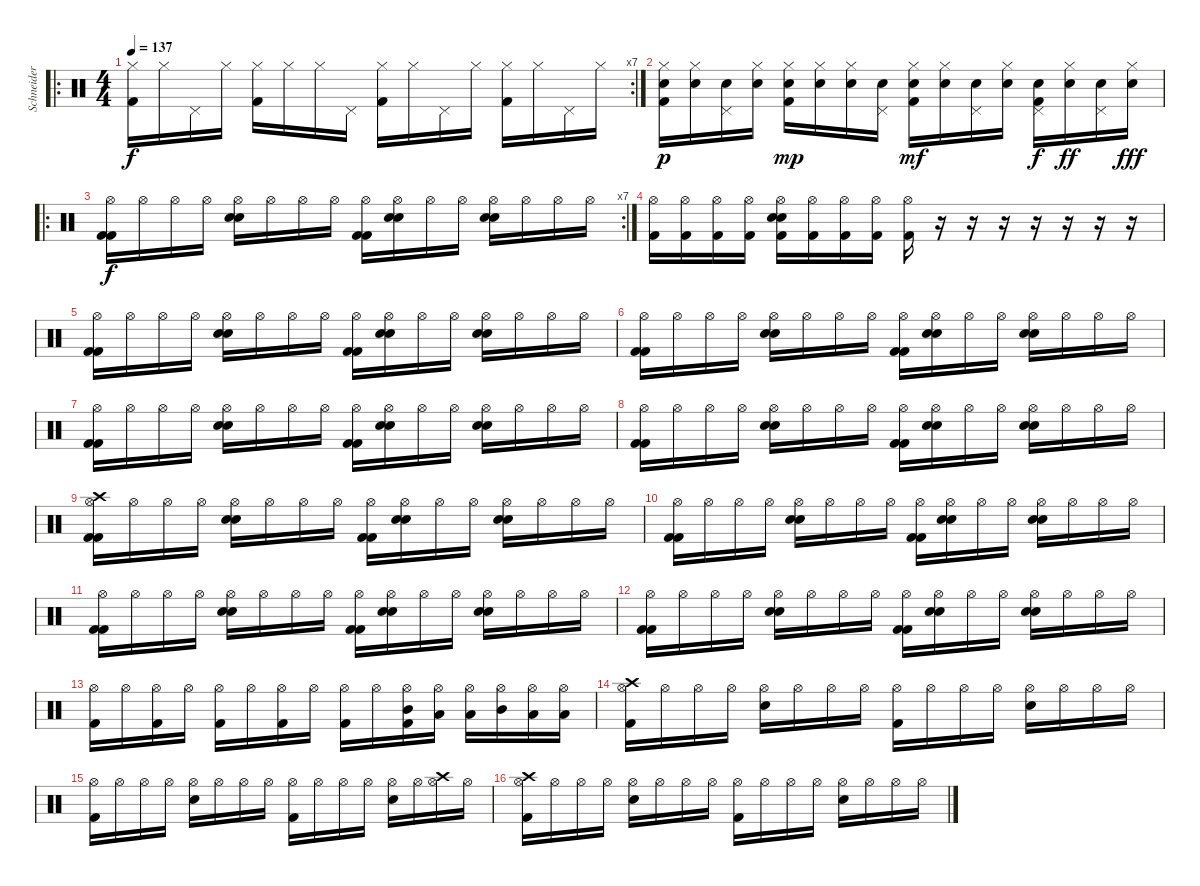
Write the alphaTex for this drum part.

\track ("Schneider" "Schneider") {instrument percussion}
\staff {score}
\articulation defaults
\ro
\rc 7
\ts (4 4)
\tempo 137
\clef neutral
\ks c
("Hi-Hat (closed)" "Kick (hit) 2").16{dy f} "Hi-Hat (closed)".16 "Pedal Hi-Hat (hit)".16 "Hi-Hat (closed)".16 ("Hi-Hat (closed)" "Kick (hit) 2").16 "Hi-Hat (closed)".16 "Hi-Hat (closed)".16 "Pedal Hi-Hat (hit)".16 ("Hi-Hat (closed)" "Kick (hit) 2").16 "Hi-Hat (closed)".16 "Pedal Hi-Hat (hit)".16 "Hi-Hat (closed)".16 ("Hi-Hat (closed)" "Kick (hit) 2").16 "Hi-Hat (closed)".16 "Pedal Hi-Hat (hit)".16 "Hi-Hat (closed)".16 |
("Electric Snare (hit)" "Hi-Hat (closed)" "Kick (hit) 2").16{dy p} ("Electric Snare (hit)" "Hi-Hat (closed)").16 ("Electric Snare (hit)" "Pedal Hi-Hat (hit)").16 ("Electric Snare (hit)" "Hi-Hat (closed)").16 ("Electric Snare (hit)" "Hi-Hat (closed)" "Kick (hit) 2").16{dy mp} ("Electric Snare (hit)" "Hi-Hat (closed)").16 ("Electric Snare (hit)" "Hi-Hat (closed)").16 ("Electric Snare (hit)" "Pedal Hi-Hat (hit)").16 ("Electric Snare (hit)" "Hi-Hat (closed)" "Kick (hit) 2").16{dy mf} ("Electric Snare (hit)" "Hi-Hat (closed)").16 ("Electric Snare (hit)" "Pedal Hi-Hat (hit)").16 ("Electric Snare (hit)" "Hi-Hat (closed)").16 ("Electric Snare (hit)" "Pedal Hi-Hat (hit)" "Kick (hit) 2").16{dy f} ("Electric Snare (hit)" "Hi-Hat (closed)").16{dy ff} ("Electric Snare (hit)" "Pedal Hi-Hat (hit)").16 ("Electric Snare (hit)" "Hi-Hat (closed)").16{dy fff} |
\ro
\rc 7
("Hi-Hat (open)" "Kick (hit) 2" "Kick (hit) 2").16{dy f} "Hi-Hat (open)".16 "Hi-Hat (open)".16 "Hi-Hat (open)".16 ("Hi-Hat (open)" "Electric Snare (hit)" "Electric Snare (hit)").16 "Hi-Hat (open)".16 "Hi-Hat (open)".16 "Hi-Hat (open)".16 ("Hi-Hat (open)" "Kick (hit) 2" "Kick (hit) 2").16 ("Hi-Hat (open)" "Electric Snare (hit)" "Electric Snare (hit)").16 "Hi-Hat (open)".16 "Hi-Hat (open)".16 ("Hi-Hat (open)" "Electric Snare (hit)" "Electric Snare (hit)").16 "Hi-Hat (open)".16 "Hi-Hat (open)".16 "Hi-Hat (open)".16 |
("Hi-Hat (open)" "Kick (hit) 2").16 ("Hi-Hat (open)" "Kick (hit) 2").16 ("Hi-Hat (open)" "Kick (hit) 2").16 ("Hi-Hat (open)" "Kick (hit) 2").16 ("Hi-Hat (open)" "Electric Snare (hit)" "Electric Snare (hit)" "Kick (hit) 2").16 ("Hi-Hat (open)" "Kick (hit) 2").16 ("Hi-Hat (open)" "Kick (hit) 2").16 ("Hi-Hat (open)" "Kick (hit) 2").16 ("Hi-Hat (open)" "Kick (hit) 2").16 r.16 r.16 r.16 r.16 r.16 r.16 r.16 |
("Hi-Hat (open)" "Kick (hit) 2" "Kick (hit) 2").16 "Hi-Hat (open)".16 "Hi-Hat (open)".16 "Hi-Hat (open)".16 ("Hi-Hat (open)" "Electric Snare (hit)" "Electric Snare (hit)").16 "Hi-Hat (open)".16 "Hi-Hat (open)".16 "Hi-Hat (open)".16 ("Hi-Hat (open)" "Kick (hit) 2" "Kick (hit) 2").16 ("Hi-Hat (open)" "Electric Snare (hit)" "Electric Snare (hit)").16 "Hi-Hat (open)".16 "Hi-Hat (open)".16 ("Hi-Hat (open)" "Electric Snare (hit)" "Electric Snare (hit)").16 "Hi-Hat (open)".16 "Hi-Hat (open)".16 "Hi-Hat (open)".16 |
("Hi-Hat (open)" "Kick (hit) 2" "Kick (hit) 2").16 "Hi-Hat (open)".16 "Hi-Hat (open)".16 "Hi-Hat (open)".16 ("Hi-Hat (open)" "Electric Snare (hit)" "Electric Snare (hit)").16 "Hi-Hat (open)".16 "Hi-Hat (open)".16 "Hi-Hat (open)".16 ("Hi-Hat (open)" "Kick (hit) 2" "Kick (hit) 2").16 ("Hi-Hat (open)" "Electric Snare (hit)" "Electric Snare (hit)").16 "Hi-Hat (open)".16 "Hi-Hat (open)".16 ("Hi-Hat (open)" "Electric Snare (hit)" "Electric Snare (hit)").16 "Hi-Hat (open)".16 "Hi-Hat (open)".16 "Hi-Hat (open)".16 |
("Hi-Hat (open)" "Kick (hit) 2" "Kick (hit) 2").16 "Hi-Hat (open)".16 "Hi-Hat (open)".16 "Hi-Hat (open)".16 ("Hi-Hat (open)" "Electric Snare (hit)" "Electric Snare (hit)").16 "Hi-Hat (open)".16 "Hi-Hat (open)".16 "Hi-Hat (open)".16 ("Hi-Hat (open)" "Kick (hit) 2" "Kick (hit) 2").16 ("Hi-Hat (open)" "Electric Snare (hit)" "Electric Snare (hit)").16 "Hi-Hat (open)".16 "Hi-Hat (open)".16 ("Hi-Hat (open)" "Electric Snare (hit)" "Electric Snare (hit)").16 "Hi-Hat (open)".16 "Hi-Hat (open)".16 "Hi-Hat (open)".16 |
("Hi-Hat (open)" "Kick (hit) 2" "Kick (hit) 2").16 "Hi-Hat (open)".16 "Hi-Hat (open)".16 "Hi-Hat (open)".16 ("Hi-Hat (open)" "Electric Snare (hit)" "Electric Snare (hit)").16 "Hi-Hat (open)".16 "Hi-Hat (open)".16 "Hi-Hat (open)".16 ("Hi-Hat (open)" "Kick (hit) 2" "Kick (hit) 2").16 ("Hi-Hat (open)" "Electric Snare (hit)" "Electric Snare (hit)").16 "Hi-Hat (open)".16 "Hi-Hat (open)".16 ("Hi-Hat (open)" "Electric Snare (hit)" "Electric Snare (hit)").16 "Hi-Hat (open)".16 "Hi-Hat (open)".16 "Hi-Hat (open)".16 |
("Crash high (hit)" "Hi-Hat (open)" "Kick (hit) 2" "Kick (hit) 2").16 "Hi-Hat (open)".16 "Hi-Hat (open)".16 "Hi-Hat (open)".16 ("Hi-Hat (open)" "Electric Snare (hit)" "Electric Snare (hit)").16 "Hi-Hat (open)".16 "Hi-Hat (open)".16 "Hi-Hat (open)".16 ("Hi-Hat (open)" "Kick (hit) 2" "Kick (hit) 2").16 ("Hi-Hat (open)" "Electric Snare (hit)" "Electric Snare (hit)").16 "Hi-Hat (open)".16 "Hi-Hat (open)".16 ("Hi-Hat (open)" "Electric Snare (hit)" "Electric Snare (hit)").16 "Hi-Hat (open)".16 "Hi-Hat (open)".16 "Hi-Hat (open)".16 |
("Hi-Hat (open)" "Kick (hit) 2" "Kick (hit) 2").16 "Hi-Hat (open)".16 "Hi-Hat (open)".16 "Hi-Hat (open)".16 ("Hi-Hat (open)" "Electric Snare (hit)" "Electric Snare (hit)").16 "Hi-Hat (open)".16 "Hi-Hat (open)".16 "Hi-Hat (open)".16 ("Hi-Hat (open)" "Kick (hit) 2" "Kick (hit) 2").16 ("Hi-Hat (open)" "Electric Snare (hit)" "Electric Snare (hit)").16 "Hi-Hat (open)".16 "Hi-Hat (open)".16 ("Hi-Hat (open)" "Electric Snare (hit)" "Electric Snare (hit)").16 "Hi-Hat (open)".16 "Hi-Hat (open)".16 "Hi-Hat (open)".16 |
("Hi-Hat (open)" "Kick (hit) 2" "Kick (hit) 2").16 "Hi-Hat (open)".16 "Hi-Hat (open)".16 "Hi-Hat (open)".16 ("Hi-Hat (open)" "Electric Snare (hit)" "Electric Snare (hit)").16 "Hi-Hat (open)".16 "Hi-Hat (open)".16 "Hi-Hat (open)".16 ("Hi-Hat (open)" "Kick (hit) 2" "Kick (hit) 2").16 ("Hi-Hat (open)" "Electric Snare (hit)" "Electric Snare (hit)").16 "Hi-Hat (open)".16 "Hi-Hat (open)".16 ("Hi-Hat (open)" "Electric Snare (hit)" "Electric Snare (hit)").16 "Hi-Hat (open)".16 "Hi-Hat (open)".16 "Hi-Hat (open)".16 |
("Hi-Hat (open)" "Kick (hit) 2" "Kick (hit) 2").16 "Hi-Hat (open)".16 "Hi-Hat (open)".16 "Hi-Hat (open)".16 ("Hi-Hat (open)" "Electric Snare (hit)" "Electric Snare (hit)").16 "Hi-Hat (open)".16 "Hi-Hat (open)".16 "Hi-Hat (open)".16 ("Hi-Hat (open)" "Kick (hit) 2" "Kick (hit) 2").16 ("Hi-Hat (open)" "Electric Snare (hit)" "Electric Snare (hit)").16 "Hi-Hat (open)".16 "Hi-Hat (open)".16 ("Hi-Hat (open)" "Electric Snare (hit)" "Electric Snare (hit)").16 "Hi-Hat (open)".16 "Hi-Hat (open)".16 "Hi-Hat (open)".16 |
("Hi-Hat (open)" "Kick (hit) 2").16 "Hi-Hat (open)".16 ("Hi-Hat (open)" "Kick (hit) 2").16 "Hi-Hat (open)".16 ("Hi-Hat (open)" "Kick (hit) 2").16 "Hi-Hat (open)".16 ("Hi-Hat (open)" "Kick (hit) 2").16 "Hi-Hat (open)".16 ("Hi-Hat (open)" "Kick (hit) 2").16 "Hi-Hat (open)".16 ("Hi-Hat (open)" "Mid Tom (hit)" "Kick (hit) 2").16 ("Hi-Hat (open)" "Low Tom (hit)").16 ("Hi-Hat (open)" "Low Floor Tom (hit)").16 ("Hi-Hat (open)" "Mid Tom (hit)").16 ("Hi-Hat (open)" "Low Tom (hit)").16 ("Hi-Hat (open)" "Low Floor Tom (hit)").16 |
("Crash high (hit)" "Hi-Hat (open)" "Kick (hit) 2").16 "Hi-Hat (open)".16 "Hi-Hat (open)".16 "Hi-Hat (open)".16 ("Hi-Hat (open)" "Electric Snare (hit)").16 "Hi-Hat (open)".16 "Hi-Hat (open)".16 "Hi-Hat (open)".16 ("Hi-Hat (open)" "Kick (hit) 2").16 "Hi-Hat (open)".16 "Hi-Hat (open)".16 "Hi-Hat (open)".16 ("Hi-Hat (open)" "Electric Snare (hit)").16 "Hi-Hat (open)".16 "Hi-Hat (open)".16 "Hi-Hat (open)".16 |
("Hi-Hat (open)" "Kick (hit) 2").16 "Hi-Hat (open)".16 "Hi-Hat (open)".16 "Hi-Hat (open)".16 ("Hi-Hat (open)" "Electric Snare (hit)").16 "Hi-Hat (open)".16 "Hi-Hat (open)".16 "Hi-Hat (open)".16 ("Hi-Hat (open)" "Kick (hit) 2").16 "Hi-Hat (open)".16 "Hi-Hat (open)".16 "Hi-Hat (open)".16 ("Hi-Hat (open)" "Electric Snare (hit)").16 "Hi-Hat (open)".16 ("Crash high (hit)" "Hi-Hat (open)").16 "Hi-Hat (open)".16 |
("Crash high (hit)" "Hi-Hat (open)" "Kick (hit) 2").16 "Hi-Hat (open)".16 "Hi-Hat (open)".16 "Hi-Hat (open)".16 ("Hi-Hat (open)" "Electric Snare (hit)").16 "Hi-Hat (open)".16 "Hi-Hat (open)".16 "Hi-Hat (open)".16 ("Hi-Hat (open)" "Kick (hit) 2").16 "Hi-Hat (open)".16 "Hi-Hat (open)".16 "Hi-Hat (open)".16 ("Hi-Hat (open)" "Electric Snare (hit)").16 "Hi-Hat (open)".16 "Hi-Hat (open)".16 "Hi-Hat (open)".16
